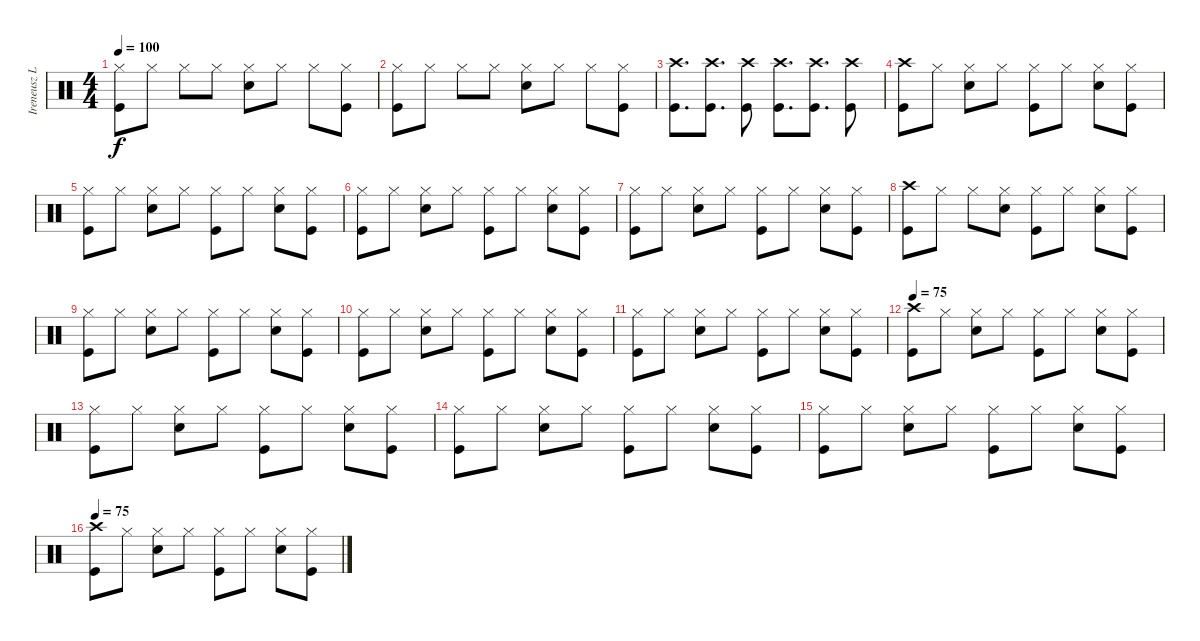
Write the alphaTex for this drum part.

\track ("Ireneusz Loth" "Ireneusz L") {instrument percussion}
\staff {score}
\articulation defaults
\ts (4 4)
\tempo 100
\clef neutral
\ks c
("Hi-Hat (closed)" "Kick (hit)").8{dy f} "Hi-Hat (closed)".8 "Hi-Hat (closed)".8 "Hi-Hat (closed)".8 ("Hi-Hat (closed)" "Snare (hit) 2").8 "Hi-Hat (closed)".8 "Hi-Hat (closed)".8 ("Hi-Hat (closed)" "Kick (hit)").8 |
("Hi-Hat (closed)" "Kick (hit)").8 "Hi-Hat (closed)".8 "Hi-Hat (closed)".8 "Hi-Hat (closed)".8 ("Hi-Hat (closed)" "Snare (hit) 2").8 "Hi-Hat (closed)".8 "Hi-Hat (closed)".8 ("Hi-Hat (closed)" "Kick (hit)").8 |
("Crash high (hit)" "Kick (hit)").8{d} ("Crash high (hit)" "Kick (hit)").8{d} ("Crash high (hit)" "Kick (hit)").8 ("Crash high (hit)" "Kick (hit)").8{d} ("Crash high (hit)" "Kick (hit)").8{d} ("Crash high (hit)" "Kick (hit)").8 |
("Crash high (hit)" "Kick (hit)").8 "Hi-Hat (closed)".8 ("Hi-Hat (closed)" "Snare (hit) 2").8 "Hi-Hat (closed)".8 ("Hi-Hat (closed)" "Kick (hit)").8 "Hi-Hat (closed)".8 ("Hi-Hat (closed)" "Snare (hit) 2").8 ("Hi-Hat (closed)" "Kick (hit)").8 |
("Hi-Hat (closed)" "Kick (hit)").8 "Hi-Hat (closed)".8 ("Hi-Hat (closed)" "Snare (hit) 2").8 "Hi-Hat (closed)".8 ("Hi-Hat (closed)" "Kick (hit)").8 "Hi-Hat (closed)".8 ("Hi-Hat (closed)" "Snare (hit) 2").8 ("Hi-Hat (closed)" "Kick (hit)").8 |
("Hi-Hat (closed)" "Kick (hit)").8 "Hi-Hat (closed)".8 ("Hi-Hat (closed)" "Snare (hit) 2").8 "Hi-Hat (closed)".8 ("Hi-Hat (closed)" "Kick (hit)").8 "Hi-Hat (closed)".8 ("Hi-Hat (closed)" "Snare (hit) 2").8 ("Hi-Hat (closed)" "Kick (hit)").8 |
("Hi-Hat (closed)" "Kick (hit)").8 "Hi-Hat (closed)".8 ("Hi-Hat (closed)" "Snare (hit) 2").8 "Hi-Hat (closed)".8 ("Hi-Hat (closed)" "Kick (hit)").8 "Hi-Hat (closed)".8 ("Hi-Hat (closed)" "Snare (hit) 2").8 ("Hi-Hat (closed)" "Kick (hit)").8 |
("Crash high (hit)" "Kick (hit)").8 "Hi-Hat (closed)".8 "Hi-Hat (closed)".8 ("Hi-Hat (closed)" "Snare (hit) 2").8 ("Hi-Hat (closed)" "Kick (hit)").8 "Hi-Hat (closed)".8 ("Hi-Hat (closed)" "Snare (hit) 2").8 ("Hi-Hat (closed)" "Kick (hit)").8 |
("Hi-Hat (closed)" "Kick (hit)").8 "Hi-Hat (closed)".8 ("Hi-Hat (closed)" "Snare (hit) 2").8 "Hi-Hat (closed)".8 ("Hi-Hat (closed)" "Kick (hit)").8 "Hi-Hat (closed)".8 ("Hi-Hat (closed)" "Snare (hit) 2").8 ("Hi-Hat (closed)" "Kick (hit)").8 |
("Hi-Hat (closed)" "Kick (hit)").8 "Hi-Hat (closed)".8 ("Hi-Hat (closed)" "Snare (hit) 2").8 "Hi-Hat (closed)".8 ("Hi-Hat (closed)" "Kick (hit)").8 "Hi-Hat (closed)".8 ("Hi-Hat (closed)" "Snare (hit) 2").8 ("Hi-Hat (closed)" "Kick (hit)").8 |
("Hi-Hat (closed)" "Kick (hit)").8 "Hi-Hat (closed)".8 ("Hi-Hat (closed)" "Snare (hit) 2").8 "Hi-Hat (closed)".8 ("Hi-Hat (closed)" "Kick (hit)").8 "Hi-Hat (closed)".8 ("Hi-Hat (closed)" "Snare (hit) 2").8 ("Hi-Hat (closed)" "Kick (hit)").8 |
\tempo 75
("Crash high (hit)" "Kick (hit)").8 "Hi-Hat (closed)".8 ("Hi-Hat (closed)" "Snare (hit) 2").8 "Hi-Hat (closed)".8 ("Hi-Hat (closed)" "Kick (hit)").8 "Hi-Hat (closed)".8 ("Hi-Hat (closed)" "Snare (hit) 2").8 ("Hi-Hat (closed)" "Kick (hit)").8 |
("Hi-Hat (closed)" "Kick (hit)").8 "Hi-Hat (closed)".8 ("Hi-Hat (closed)" "Snare (hit) 2").8 "Hi-Hat (closed)".8 ("Hi-Hat (closed)" "Kick (hit)").8 "Hi-Hat (closed)".8 ("Hi-Hat (closed)" "Snare (hit) 2").8 ("Hi-Hat (closed)" "Kick (hit)").8 |
("Hi-Hat (closed)" "Kick (hit)").8 "Hi-Hat (closed)".8 ("Hi-Hat (closed)" "Snare (hit) 2").8 "Hi-Hat (closed)".8 ("Hi-Hat (closed)" "Kick (hit)").8 "Hi-Hat (closed)".8 ("Hi-Hat (closed)" "Snare (hit) 2").8 ("Hi-Hat (closed)" "Kick (hit)").8 |
("Hi-Hat (closed)" "Kick (hit)").8 "Hi-Hat (closed)".8 ("Hi-Hat (closed)" "Snare (hit) 2").8 "Hi-Hat (closed)".8 ("Hi-Hat (closed)" "Kick (hit)").8 "Hi-Hat (closed)".8 ("Hi-Hat (closed)" "Snare (hit) 2").8 ("Hi-Hat (closed)" "Kick (hit)").8 |
\tempo 75
("Crash high (hit)" "Kick (hit)").8 "Hi-Hat (closed)".8 ("Hi-Hat (closed)" "Snare (hit) 2").8 "Hi-Hat (closed)".8 ("Hi-Hat (closed)" "Kick (hit)").8 "Hi-Hat (closed)".8 ("Hi-Hat (closed)" "Snare (hit) 2").8 ("Hi-Hat (closed)" "Kick (hit)").8
